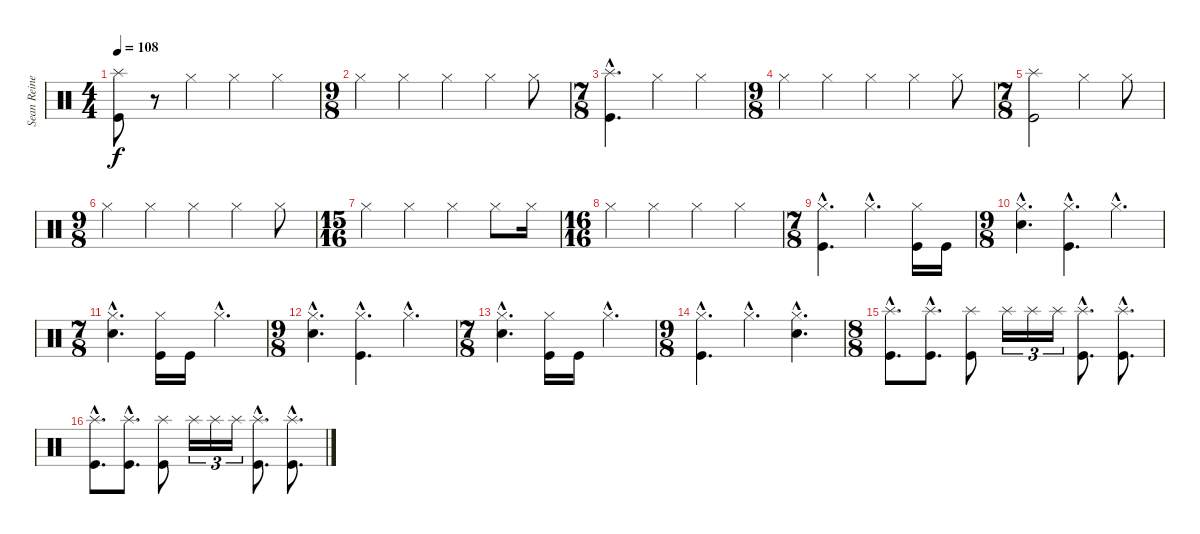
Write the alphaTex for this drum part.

\track ("Sean Reinert" "Sean Reine") {instrument percussion}
\staff {score}
\articulation defaults
\ts (4 4)
\tempo 108
\clef neutral
\ks c
("Splash (hit)" "Kick (hit)").8{dy f} r.8 "Hi-Hat (closed)".4 "Hi-Hat (closed)".4 "Hi-Hat (closed)".4 |
\ts (9 8)
"Hi-Hat (closed)".4 "Hi-Hat (closed)".4 "Hi-Hat (closed)".4 "Hi-Hat (closed)".4 "Hi-Hat (closed)".8 |
\ts (7 8)
("Splash (hit)"{hac} "Kick (hit)"{hac}).4{d} "Hi-Hat (closed)".4 "Hi-Hat (closed)".4 |
\ts (9 8)
"Hi-Hat (closed)".4 "Hi-Hat (closed)".4 "Hi-Hat (closed)".4 "Hi-Hat (closed)".4 "Hi-Hat (closed)".8 |
\ts (7 8)
("Splash (hit)" "Kick (hit)").2 "Hi-Hat (closed)".4 "Hi-Hat (closed)".8 |
\ts (9 8)
"Hi-Hat (closed)".4 "Hi-Hat (closed)".4 "Hi-Hat (closed)".4 "Hi-Hat (closed)".4 "Hi-Hat (closed)".8 |
\ts (15 16)
"Hi-Hat (closed)".4 "Hi-Hat (closed)".4 "Hi-Hat (closed)".4 "Hi-Hat (closed)".8 "Hi-Hat (closed)".16 |
\ts (16 16)
"Hi-Hat (closed)".4 "Hi-Hat (closed)".4 "Hi-Hat (closed)".4 "Hi-Hat (closed)".4 |
\ts (7 8)
("Hi-Hat (closed)"{hac} "Kick (hit)"{hac}).4{d} "Hi-Hat (closed)"{hac}.4{d} ("Hi-Hat (closed)" "Kick (hit)").16 "Kick (hit)".16 |
\ts (9 8)
("Hi-Hat (closed)"{hac} "Snare (hit) 2"{hac}).4{d} ("Hi-Hat (closed)"{hac} "Kick (hit)"{hac}).4{d} "Hi-Hat (closed)"{hac}.4{d} |
\ts (7 8)
("Hi-Hat (closed)"{hac} "Snare (hit) 2"{hac}).4{d} ("Hi-Hat (closed)" "Kick (hit)").16 "Kick (hit)".16 "Hi-Hat (closed)"{hac}.4{d} |
\ts (9 8)
("Hi-Hat (closed)"{hac} "Snare (hit) 2"{hac}).4{d} ("Hi-Hat (closed)"{hac} "Kick (hit)"{hac}).4{d} "Hi-Hat (closed)"{hac}.4{d} |
\ts (7 8)
("Hi-Hat (closed)"{hac} "Snare (hit) 2"{hac}).4{d} ("Hi-Hat (closed)" "Kick (hit)").16 "Kick (hit)".16 "Hi-Hat (closed)"{hac}.4{d} |
\ts (9 8)
("Hi-Hat (closed)"{hac} "Kick (hit)"{hac}).4{d} "Hi-Hat (closed)"{hac}.4{d} ("Hi-Hat (closed)"{hac} "Snare (hit) 2"{hac}).4{d} |
\ts (8 8)
("Splash (hit)"{hac} "Kick (hit)"{hac}).8{d} ("Splash (hit)"{hac} "Kick (hit)"{hac}).8{d} ("Splash (hit)" "Kick (hit)").8 "Splash (hit)".16{tu (3 2)} "Splash (hit)".16{tu (3 2)} "Splash (hit)".16{tu (3 2)} ("Splash (hit)"{hac} "Kick (hit)"{hac}).8{d} ("Splash (hit)"{hac} "Kick (hit)"{hac}).8{d} |
("Splash (hit)"{hac} "Kick (hit)"{hac}).8{d} ("Splash (hit)"{hac} "Kick (hit)"{hac}).8{d} ("Splash (hit)" "Kick (hit)").8 "Splash (hit)".16{tu (3 2)} "Splash (hit)".16{tu (3 2)} "Splash (hit)".16{tu (3 2)} ("Splash (hit)"{hac} "Kick (hit)"{hac}).8{d} ("Splash (hit)"{hac} "Kick (hit)"{hac}).8{d}
